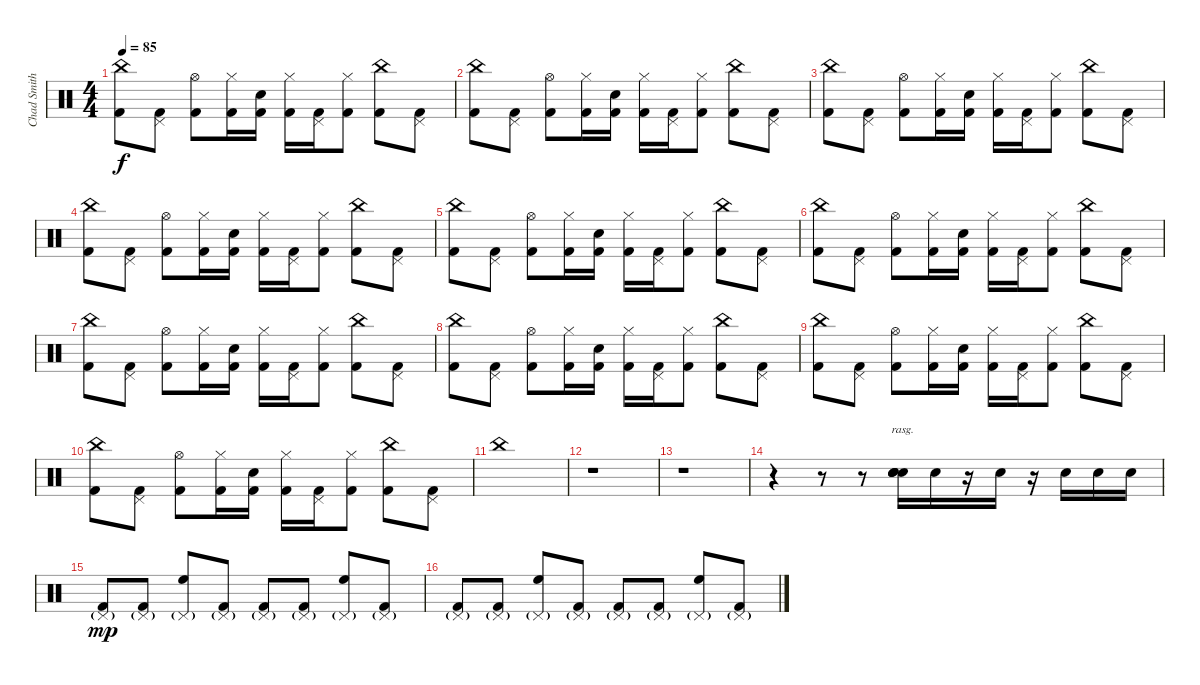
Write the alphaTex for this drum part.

\track ("Chad Smith - Drums" "Chad Smith") {instrument percussion}
\staff {score}
\articulation defaults
\ts (4 4)
\tempo 85
\clef neutral
\ks c
("China (hit)" "Kick (hit) 2").8{dy f} ("Pedal Hi-Hat (hit)" "Kick (hit) 2").8 ("Hi-Hat (open)" "Kick (hit) 2").8 ("Hi-Hat (closed)" "Kick (hit) 2").16 ("Electric Snare (hit)" "Kick (hit) 2").16 ("Hi-Hat (closed)" "Kick (hit) 2").16 ("Pedal Hi-Hat (hit)" "Kick (hit) 2").16 ("Hi-Hat (closed)" "Kick (hit) 2").8 ("China (hit)" "Kick (hit) 2").8 ("Pedal Hi-Hat (hit)" "Kick (hit) 2").8 |
("China (hit)" "Kick (hit) 2").8 ("Pedal Hi-Hat (hit)" "Kick (hit) 2").8 ("Hi-Hat (open)" "Kick (hit) 2").8 ("Hi-Hat (closed)" "Kick (hit) 2").16 ("Electric Snare (hit)" "Kick (hit) 2").16 ("Hi-Hat (closed)" "Kick (hit) 2").16 ("Pedal Hi-Hat (hit)" "Kick (hit) 2").16 ("Hi-Hat (closed)" "Kick (hit) 2").8 ("China (hit)" "Kick (hit) 2").8 ("Pedal Hi-Hat (hit)" "Kick (hit) 2").8 |
("China (hit)" "Kick (hit) 2").8 ("Pedal Hi-Hat (hit)" "Kick (hit) 2").8 ("Hi-Hat (open)" "Kick (hit) 2").8 ("Hi-Hat (closed)" "Kick (hit) 2").16 ("Electric Snare (hit)" "Kick (hit) 2").16 ("Hi-Hat (closed)" "Kick (hit) 2").16 ("Pedal Hi-Hat (hit)" "Kick (hit) 2").16 ("Hi-Hat (closed)" "Kick (hit) 2").8 ("China (hit)" "Kick (hit) 2").8 ("Pedal Hi-Hat (hit)" "Kick (hit) 2").8 |
("China (hit)" "Kick (hit) 2").8 ("Pedal Hi-Hat (hit)" "Kick (hit) 2").8 ("Hi-Hat (open)" "Kick (hit) 2").8 ("Hi-Hat (closed)" "Kick (hit) 2").16 ("Electric Snare (hit)" "Kick (hit) 2").16 ("Hi-Hat (closed)" "Kick (hit) 2").16 ("Pedal Hi-Hat (hit)" "Kick (hit) 2").16 ("Hi-Hat (closed)" "Kick (hit) 2").8 ("China (hit)" "Kick (hit) 2").8 ("Pedal Hi-Hat (hit)" "Kick (hit) 2").8 |
("China (hit)" "Kick (hit) 2").8 ("Pedal Hi-Hat (hit)" "Kick (hit) 2").8 ("Hi-Hat (open)" "Kick (hit) 2").8 ("Hi-Hat (closed)" "Kick (hit) 2").16 ("Electric Snare (hit)" "Kick (hit) 2").16 ("Hi-Hat (closed)" "Kick (hit) 2").16 ("Pedal Hi-Hat (hit)" "Kick (hit) 2").16 ("Hi-Hat (closed)" "Kick (hit) 2").8 ("China (hit)" "Kick (hit) 2").8 ("Pedal Hi-Hat (hit)" "Kick (hit) 2").8 |
("China (hit)" "Kick (hit) 2").8 ("Pedal Hi-Hat (hit)" "Kick (hit) 2").8 ("Hi-Hat (open)" "Kick (hit) 2").8 ("Hi-Hat (closed)" "Kick (hit) 2").16 ("Electric Snare (hit)" "Kick (hit) 2").16 ("Hi-Hat (closed)" "Kick (hit) 2").16 ("Pedal Hi-Hat (hit)" "Kick (hit) 2").16 ("Hi-Hat (closed)" "Kick (hit) 2").8 ("China (hit)" "Kick (hit) 2").8 ("Pedal Hi-Hat (hit)" "Kick (hit) 2").8 |
("China (hit)" "Kick (hit) 2").8 ("Pedal Hi-Hat (hit)" "Kick (hit) 2").8 ("Hi-Hat (open)" "Kick (hit) 2").8 ("Hi-Hat (closed)" "Kick (hit) 2").16 ("Electric Snare (hit)" "Kick (hit) 2").16 ("Hi-Hat (closed)" "Kick (hit) 2").16 ("Pedal Hi-Hat (hit)" "Kick (hit) 2").16 ("Hi-Hat (closed)" "Kick (hit) 2").8 ("China (hit)" "Kick (hit) 2").8 ("Pedal Hi-Hat (hit)" "Kick (hit) 2").8 |
("China (hit)" "Kick (hit) 2").8 ("Pedal Hi-Hat (hit)" "Kick (hit) 2").8 ("Hi-Hat (open)" "Kick (hit) 2").8 ("Hi-Hat (closed)" "Kick (hit) 2").16 ("Electric Snare (hit)" "Kick (hit) 2").16 ("Hi-Hat (closed)" "Kick (hit) 2").16 ("Pedal Hi-Hat (hit)" "Kick (hit) 2").16 ("Hi-Hat (closed)" "Kick (hit) 2").8 ("China (hit)" "Kick (hit) 2").8 ("Pedal Hi-Hat (hit)" "Kick (hit) 2").8 |
("China (hit)" "Kick (hit) 2").8 ("Pedal Hi-Hat (hit)" "Kick (hit) 2").8 ("Hi-Hat (open)" "Kick (hit) 2").8 ("Hi-Hat (closed)" "Kick (hit) 2").16 ("Electric Snare (hit)" "Kick (hit) 2").16 ("Hi-Hat (closed)" "Kick (hit) 2").16 ("Pedal Hi-Hat (hit)" "Kick (hit) 2").16 ("Hi-Hat (closed)" "Kick (hit) 2").8 ("China (hit)" "Kick (hit) 2").8 ("Pedal Hi-Hat (hit)" "Kick (hit) 2").8 |
("China (hit)" "Kick (hit) 2").8 ("Pedal Hi-Hat (hit)" "Kick (hit) 2").8 ("Hi-Hat (open)" "Kick (hit) 2").8 ("Hi-Hat (closed)" "Kick (hit) 2").16 ("Electric Snare (hit)" "Kick (hit) 2").16 ("Hi-Hat (closed)" "Kick (hit) 2").16 ("Pedal Hi-Hat (hit)" "Kick (hit) 2").16 ("Hi-Hat (closed)" "Kick (hit) 2").8 ("China (hit)" "Kick (hit) 2").8 ("Pedal Hi-Hat (hit)" "Kick (hit) 2").8 |
"China (hit)".1 |
r.1 |
r.1 |
r.4 r.8 r.8 ("Electric Snare (hit)" "Electric Snare (hit)" "Snare (hit) 2" "Electric Snare (hit)").16{bd 120 rasg ii} "Electric Snare (hit)".16 r.16 "Electric Snare (hit)".16 r.16 "Snare (hit) 2".16 "Snare (hit) 2".16 "Snare (hit) 2".16 |
("Pedal Hi-Hat (hit)"{g} "Kick (hit) 2").8{dy mp} ("Pedal Hi-Hat (hit)"{g} "Kick (hit) 2").8 ("Pedal Hi-Hat (hit)"{g} "High Floor Tom (hit)").8 ("Pedal Hi-Hat (hit)"{g} "Kick (hit) 2").8 ("Pedal Hi-Hat (hit)"{g} "Kick (hit) 2").8 ("Pedal Hi-Hat (hit)"{g} "Kick (hit) 2").8 ("Pedal Hi-Hat (hit)"{g} "High Floor Tom (hit)").8 ("Pedal Hi-Hat (hit)"{g} "Kick (hit) 2").8 |
("Pedal Hi-Hat (hit)"{g} "Kick (hit) 2").8 ("Pedal Hi-Hat (hit)"{g} "Kick (hit) 2").8 ("Pedal Hi-Hat (hit)"{g} "High Floor Tom (hit)").8 ("Pedal Hi-Hat (hit)"{g} "Kick (hit) 2").8 ("Pedal Hi-Hat (hit)"{g} "Kick (hit) 2").8 ("Pedal Hi-Hat (hit)"{g} "Kick (hit) 2").8 ("Pedal Hi-Hat (hit)"{g} "High Floor Tom (hit)").8 ("Pedal Hi-Hat (hit)"{g} "Kick (hit) 2").8
